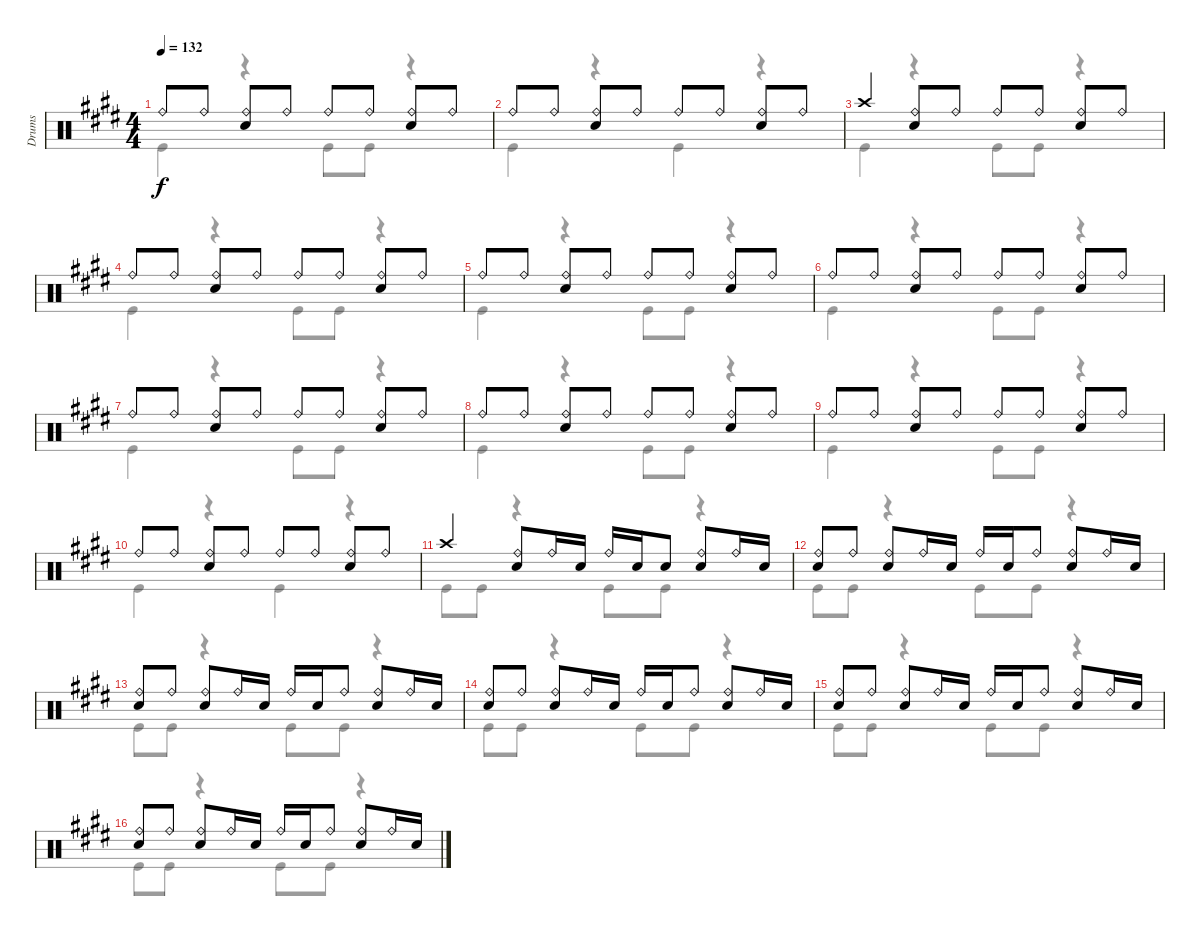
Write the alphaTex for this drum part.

\track ("Drums" "Drums") {instrument percussion}
\staff {score}
\articulation defaults
\voice
\ts (4 4)
\tempo 132
\clef neutral
\ks e "Ride (bell)".8{dy f} "Ride (bell)".8
("Ride (bell)" "Snare (hit) 2").8 "Ride (bell)".8 "Ride (bell)".8 "Ride (bell)".8 ("Ride (bell)" "Snare (hit) 2").8 "Ride (bell)".8 |
"Ride (bell)".8 "Ride (bell)".8 ("Ride (bell)" "Snare (hit) 2").8 "Ride (bell)".8 "Ride (bell)".8 "Ride (bell)".8 ("Ride (bell)" "Snare (hit) 2").8 "Ride (bell)".8 |
"Crash high (hit)".4 ("Ride (bell)" "Snare (hit) 2").8 "Ride (bell)".8 "Ride (bell)".8 "Ride (bell)".8 ("Ride (bell)" "Snare (hit) 2").8 "Ride (bell)".8 |
"Ride (bell)".8 "Ride (bell)".8 ("Ride (bell)" "Snare (hit) 2").8 "Ride (bell)".8 "Ride (bell)".8 "Ride (bell)".8 ("Ride (bell)" "Snare (hit) 2").8 "Ride (bell)".8 |
"Ride (bell)".8 "Ride (bell)".8 ("Ride (bell)" "Snare (hit) 2").8 "Ride (bell)".8 "Ride (bell)".8 "Ride (bell)".8 ("Ride (bell)" "Snare (hit) 2").8 "Ride (bell)".8 |
"Ride (bell)".8 "Ride (bell)".8 ("Ride (bell)" "Snare (hit) 2").8 "Ride (bell)".8 "Ride (bell)".8 "Ride (bell)".8 ("Ride (bell)" "Snare (hit) 2").8 "Ride (bell)".8 |
"Ride (bell)".8 "Ride (bell)".8 ("Ride (bell)" "Snare (hit) 2").8 "Ride (bell)".8 "Ride (bell)".8 "Ride (bell)".8 ("Ride (bell)" "Snare (hit) 2").8 "Ride (bell)".8 |
"Ride (bell)".8 "Ride (bell)".8 ("Ride (bell)" "Snare (hit) 2").8 "Ride (bell)".8 "Ride (bell)".8 "Ride (bell)".8 ("Ride (bell)" "Snare (hit) 2").8 "Ride (bell)".8 |
"Ride (bell)".8 "Ride (bell)".8 ("Ride (bell)" "Snare (hit) 2").8 "Ride (bell)".8 "Ride (bell)".8 "Ride (bell)".8 ("Ride (bell)" "Snare (hit) 2").8 "Ride (bell)".8 |
"Ride (bell)".8 "Ride (bell)".8 ("Ride (bell)" "Snare (hit) 2").8 "Ride (bell)".8 "Ride (bell)".8 "Ride (bell)".8 ("Ride (bell)" "Snare (hit) 2").8 "Ride (bell)".8 |
"Crash high (hit)".4 ("Ride (bell)" "Snare (hit) 2").8 "Ride (bell)".16 "Snare (hit) 2".16 "Ride (bell)".16 "Snare (hit) 2".16 "Snare (hit) 2".8 ("Ride (bell)" "Snare (hit) 2").8 "Ride (bell)".16 "Snare (hit) 2".16 |
("Snare (hit) 2" "Ride (bell)").8 "Ride (bell)".8 ("Ride (bell)" "Snare (hit) 2").8 "Ride (bell)".16 "Snare (hit) 2".16 "Ride (bell)".16 "Snare (hit) 2".16 "Ride (bell)".8 ("Ride (bell)" "Snare (hit) 2").8 "Ride (bell)".16 "Snare (hit) 2".16 |
("Snare (hit) 2" "Ride (bell)").8 "Ride (bell)".8 ("Ride (bell)" "Snare (hit) 2").8 "Ride (bell)".16 "Snare (hit) 2".16 "Ride (bell)".16 "Snare (hit) 2".16 "Ride (bell)".8 ("Ride (bell)" "Snare (hit) 2").8 "Ride (bell)".16 "Snare (hit) 2".16 |
("Snare (hit) 2" "Ride (bell)").8 "Ride (bell)".8 ("Ride (bell)" "Snare (hit) 2").8 "Ride (bell)".16 "Snare (hit) 2".16 "Ride (bell)".16 "Snare (hit) 2".16 "Ride (bell)".8 ("Ride (bell)" "Snare (hit) 2").8 "Ride (bell)".16 "Snare (hit) 2".16 |
("Snare (hit) 2" "Ride (bell)").8 "Ride (bell)".8 ("Ride (bell)" "Snare (hit) 2").8 "Ride (bell)".16 "Snare (hit) 2".16 "Ride (bell)".16 "Snare (hit) 2".16 "Ride (bell)".8 ("Ride (bell)" "Snare (hit) 2").8 "Ride (bell)".16 "Snare (hit) 2".16 |
("Snare (hit) 2" "Ride (bell)").8 "Ride (bell)".8 ("Ride (bell)" "Snare (hit) 2").8 "Ride (bell)".16 "Snare (hit) 2".16 "Ride (bell)".16 "Snare (hit) 2".16 "Ride (bell)".8 ("Ride (bell)" "Snare (hit) 2").8 "Ride (bell)".16 "Snare (hit) 2".16
\voice
\clef neutral
\ottava regular
\simile none
\ks e "Kick (hit)".4{dy f}
r.4 "Kick (hit)".8 "Kick (hit)".8 r.4 |
"Kick (hit)".4 r.4 "Kick (hit)".4 r.4 |
"Kick (hit)".4 r.4 "Kick (hit)".8 "Kick (hit)".8 r.4 |
"Kick (hit)".4 r.4 "Kick (hit)".8 "Kick (hit)".8 r.4 |
"Kick (hit)".4 r.4 "Kick (hit)".8 "Kick (hit)".8 r.4 |
"Kick (hit)".4 r.4 "Kick (hit)".8 "Kick (hit)".8 r.4 |
"Kick (hit)".4 r.4 "Kick (hit)".8 "Kick (hit)".8 r.4 |
"Kick (hit)".4 r.4 "Kick (hit)".8 "Kick (hit)".8 r.4 |
"Kick (hit)".4 r.4 "Kick (hit)".8 "Kick (hit)".8 r.4 |
"Kick (hit)".4 r.4 "Kick (hit)".4 r.4 |
"Kick (hit)".8 "Kick (hit)".8 r.4 "Kick (hit)".8 "Kick (hit)".8 r.4 |
"Kick (hit)".8 "Kick (hit)".8 r.4 "Kick (hit)".8 "Kick (hit)".8 r.4 |
"Kick (hit)".8 "Kick (hit)".8 r.4 "Kick (hit)".8 "Kick (hit)".8 r.4 |
"Kick (hit)".8 "Kick (hit)".8 r.4 "Kick (hit)".8 "Kick (hit)".8 r.4 |
"Kick (hit)".8 "Kick (hit)".8 r.4 "Kick (hit)".8 "Kick (hit)".8 r.4 |
"Kick (hit)".8 "Kick (hit)".8 r.4 "Kick (hit)".8 "Kick (hit)".8 r.4
